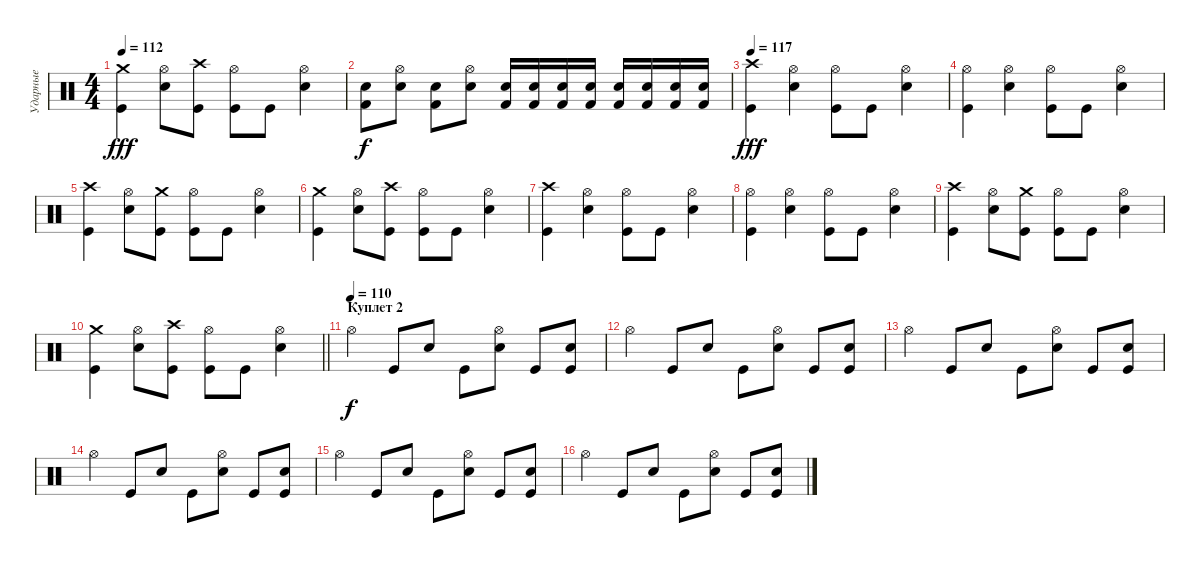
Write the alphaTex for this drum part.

\track ("Ударные" "Ударные") {instrument percussion}
\staff {score}
\articulation defaults
\ts (4 4)
\tempo 112
\clef neutral
\ks c
("Crash medium (hit)" "Kick (hit)").4{dy fff} ("Hi-Hat (open)" "Electric Snare (hit)").8 ("Crash high (hit)" "Kick (hit)").8 ("Hi-Hat (open)" "Kick (hit)").8 "Kick (hit)".8 ("Hi-Hat (open)" "Electric Snare (hit)").4 |
("Electric Snare (hit)" "Kick (hit) 2").8{dy f} ("Electric Snare (hit)" "Hi-Hat (open)").8 ("Electric Snare (hit)" "Kick (hit) 2").8 ("Electric Snare (hit)" "Hi-Hat (open)").8 ("Electric Snare (hit)" "Kick (hit) 2").16 ("Electric Snare (hit)" "Kick (hit) 2").16 ("Kick (hit) 2" "Electric Snare (hit)").16 ("Electric Snare (hit)" "Kick (hit) 2").16 ("Kick (hit) 2" "Electric Snare (hit)").16 ("Electric Snare (hit)" "Kick (hit) 2").16 ("Kick (hit) 2" "Electric Snare (hit)").16 ("Electric Snare (hit)" "Kick (hit) 2").16 |
\tempo 117
("Crash high (hit)" "Kick (hit)").4{dy fff} ("Hi-Hat (open)" "Electric Snare (hit)").4 ("Hi-Hat (open)" "Kick (hit)").8 "Kick (hit)".8 ("Hi-Hat (open)" "Electric Snare (hit)").4 |
("Hi-Hat (open)" "Kick (hit)").4 ("Hi-Hat (open)" "Electric Snare (hit)").4 ("Hi-Hat (open)" "Kick (hit)").8 "Kick (hit)".8 ("Hi-Hat (open)" "Electric Snare (hit)").4 |
("Crash high (hit)" "Kick (hit)").4 ("Hi-Hat (open)" "Electric Snare (hit)").8 ("Crash medium (hit)" "Kick (hit)").8 ("Hi-Hat (open)" "Kick (hit)").8 "Kick (hit)".8 ("Hi-Hat (open)" "Electric Snare (hit)").4 |
("Crash medium (hit)" "Kick (hit)").4 ("Hi-Hat (open)" "Electric Snare (hit)").8 ("Crash high (hit)" "Kick (hit)").8 ("Hi-Hat (open)" "Kick (hit)").8 "Kick (hit)".8 ("Hi-Hat (open)" "Electric Snare (hit)").4 |
("Crash high (hit)" "Kick (hit)").4 ("Hi-Hat (open)" "Electric Snare (hit)").4 ("Hi-Hat (open)" "Kick (hit)").8 "Kick (hit)".8 ("Hi-Hat (open)" "Electric Snare (hit)").4 |
("Hi-Hat (open)" "Kick (hit)").4 ("Hi-Hat (open)" "Electric Snare (hit)").4 ("Hi-Hat (open)" "Kick (hit)").8 "Kick (hit)".8 ("Hi-Hat (open)" "Electric Snare (hit)").4 |
("Crash high (hit)" "Kick (hit)").4 ("Hi-Hat (open)" "Electric Snare (hit)").8 ("Crash medium (hit)" "Kick (hit)").8 ("Hi-Hat (open)" "Kick (hit)").8 "Kick (hit)".8 ("Hi-Hat (open)" "Electric Snare (hit)").4 |
\barLineRight lightlight
("Crash medium (hit)" "Kick (hit)").4 ("Hi-Hat (open)" "Electric Snare (hit)").8 ("Crash high (hit)" "Kick (hit)").8 ("Hi-Hat (open)" "Kick (hit)").8 "Kick (hit)".8 ("Hi-Hat (open)" "Electric Snare (hit)").4 |
\section ("" "Куплет 2")
\tempo 105
\tempo (110)
"Hi-Hat (open)".4{dy f} "Kick (hit)".8 "Snare (hit) 2".8 "Kick (hit)".8 ("Snare (hit) 2" "Hi-Hat (open)").8 "Kick (hit)".8 ("Kick (hit)" "Snare (hit) 2").8 |
"Hi-Hat (open)".4 "Kick (hit)".8 "Snare (hit) 2".8 "Kick (hit)".8 ("Snare (hit) 2" "Hi-Hat (open)").8 "Kick (hit)".8 ("Kick (hit)" "Snare (hit) 2").8 |
"Hi-Hat (open)".4 "Kick (hit)".8 "Snare (hit) 2".8 "Kick (hit)".8 ("Snare (hit) 2" "Hi-Hat (open)").8 "Kick (hit)".8 ("Kick (hit)" "Snare (hit) 2").8 |
"Hi-Hat (open)".4 "Kick (hit)".8 "Snare (hit) 2".8 "Kick (hit)".8 ("Snare (hit) 2" "Hi-Hat (open)").8 "Kick (hit)".8 ("Kick (hit)" "Snare (hit) 2").8 |
"Hi-Hat (open)".4 "Kick (hit)".8 "Snare (hit) 2".8 "Kick (hit)".8 ("Snare (hit) 2" "Hi-Hat (open)").8 "Kick (hit)".8 ("Kick (hit)" "Snare (hit) 2").8 |
"Hi-Hat (open)".4 "Kick (hit)".8 "Snare (hit) 2".8 "Kick (hit)".8 ("Snare (hit) 2" "Hi-Hat (open)").8 "Kick (hit)".8 ("Kick (hit)" "Snare (hit) 2").8
